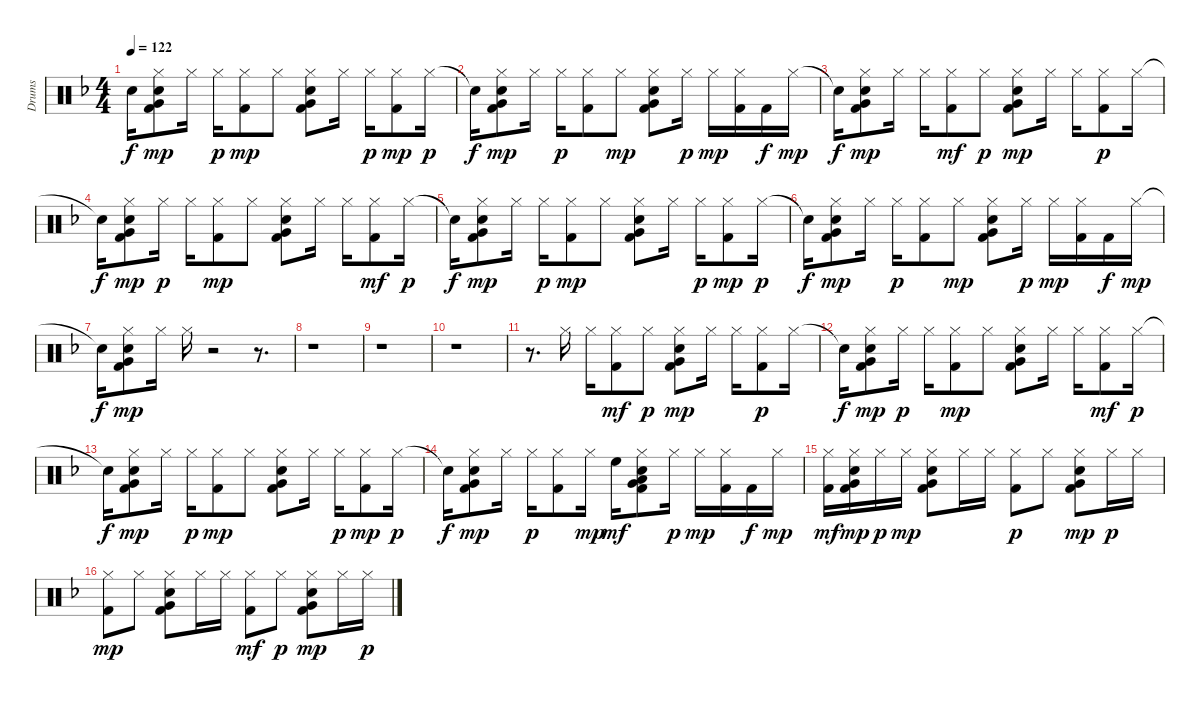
\track ("Drums" "Drums") {instrument percussion}
\staff {score}
\articulation defaults
\ts (4 4)
\tempo 122
\clef neutral
\ks f "Snare (hit)"{t}.16{dy f}
("Kick (hit) 2" "Snare (hit) 2" "Hi-Hat (closed)" "Very Low Tom (hit)").8{dy mp} "Hi-Hat (closed)".16 "Hi-Hat (closed)".16{dy p} ("Kick (hit) 2" "Hi-Hat (closed)").8{dy mp} "Hi-Hat (closed)".8 ("Kick (hit) 2" "Snare (hit) 2" "Hi-Hat (closed)" "Very Low Tom (hit)").8 "Hi-Hat (closed)".16 "Hi-Hat (closed)".16{dy p} ("Kick (hit) 2" "Hi-Hat (closed)").8{dy mp} "Hi-Hat (closed)".16{dy p} |
"Snare (hit)"{t}.16{dy f} ("Kick (hit) 2" "Snare (hit) 2" "Hi-Hat (closed)" "Very Low Tom (hit)").8{dy mp} "Hi-Hat (closed)".16 "Hi-Hat (closed)".16{dy p} ("Kick (hit) 2" "Hi-Hat (closed)").8 "Hi-Hat (closed)".8{dy mp} ("Kick (hit) 2" "Snare (hit) 2" "Hi-Hat (closed)" "Very Low Tom (hit)").8 "Hi-Hat (closed)".16{dy p} "Hi-Hat (closed)".16{dy mp} ("Kick (hit) 2" "Hi-Hat (closed)").16 "Kick (hit) 2".16{dy f} "Hi-Hat (closed)".16{dy mp} |
"Snare (hit)"{t}.16{dy f} ("Kick (hit) 2" "Snare (hit) 2" "Hi-Hat (closed)" "Very Low Tom (hit)").8{dy mp} "Hi-Hat (closed)".16 "Hi-Hat (closed)".16 ("Kick (hit) 2" "Hi-Hat (closed)").8{dy mf} "Hi-Hat (closed)".8{dy p} ("Kick (hit) 2" "Snare (hit) 2" "Hi-Hat (closed)" "Very Low Tom (hit)").8{dy mp} "Hi-Hat (closed)".16 "Hi-Hat (closed)".16 ("Kick (hit) 2" "Hi-Hat (closed)").8{dy p} "Hi-Hat (closed)".16 |
"Snare (hit)"{t}.16{dy f} ("Kick (hit) 2" "Snare (hit) 2" "Hi-Hat (closed)" "Very Low Tom (hit)").8{dy mp} "Hi-Hat (closed)".16{dy p} "Hi-Hat (closed)".16 ("Kick (hit) 2" "Hi-Hat (closed)").8{dy mp} "Hi-Hat (closed)".8 ("Kick (hit) 2" "Snare (hit) 2" "Hi-Hat (closed)" "Very Low Tom (hit)").8 "Hi-Hat (closed)".16 "Hi-Hat (closed)".16 ("Kick (hit) 2" "Hi-Hat (closed)").8{dy mf} "Hi-Hat (closed)".16{dy p} |
"Snare (hit)"{t}.16{dy f} ("Kick (hit) 2" "Snare (hit) 2" "Hi-Hat (closed)" "Very Low Tom (hit)").8{dy mp} "Hi-Hat (closed)".16 "Hi-Hat (closed)".16{dy p} ("Kick (hit) 2" "Hi-Hat (closed)").8{dy mp} "Hi-Hat (closed)".8 ("Kick (hit) 2" "Snare (hit) 2" "Hi-Hat (closed)" "Very Low Tom (hit)").8 "Hi-Hat (closed)".16 "Hi-Hat (closed)".16{dy p} ("Kick (hit) 2" "Hi-Hat (closed)").8{dy mp} "Hi-Hat (closed)".16{dy p} |
"Snare (hit)"{t}.16{dy f} ("Kick (hit) 2" "Snare (hit) 2" "Hi-Hat (closed)" "Very Low Tom (hit)").8{dy mp} "Hi-Hat (closed)".16 "Hi-Hat (closed)".16{dy p} ("Kick (hit) 2" "Hi-Hat (closed)").8 "Hi-Hat (closed)".8{dy mp} ("Kick (hit) 2" "Snare (hit) 2" "Hi-Hat (closed)" "Very Low Tom (hit)").8 "Hi-Hat (closed)".16{dy p} "Hi-Hat (closed)".16{dy mp} ("Kick (hit) 2" "Hi-Hat (closed)").16 "Kick (hit) 2".16{dy f} "Hi-Hat (closed)".16{dy mp} |
"Snare (hit)"{t}.16{dy f} ("Kick (hit) 2" "Snare (hit) 2" "Hi-Hat (closed)" "Very Low Tom (hit)").8{dy mp} "Hi-Hat (closed)".16 "Hi-Hat (closed)".16 r.2 r.8{d} |
r.1 |
r.1 |
r.1 |
r.8{d} "Hi-Hat (closed)".16 "Hi-Hat (closed)".16 ("Kick (hit) 2" "Hi-Hat (closed)").8{dy mf} "Hi-Hat (closed)".8{dy p} ("Kick (hit) 2" "Snare (hit) 2" "Hi-Hat (closed)" "Very Low Tom (hit)").8{dy mp} "Hi-Hat (closed)".16 "Hi-Hat (closed)".16 ("Kick (hit) 2" "Hi-Hat (closed)").8{dy p} "Hi-Hat (closed)".16 |
"Snare (hit)"{t}.16{dy f} ("Kick (hit) 2" "Snare (hit) 2" "Hi-Hat (closed)" "Very Low Tom (hit)").8{dy mp} "Hi-Hat (closed)".16{dy p} "Hi-Hat (closed)".16 ("Kick (hit) 2" "Hi-Hat (closed)").8{dy mp} "Hi-Hat (closed)".8 ("Kick (hit) 2" "Snare (hit) 2" "Hi-Hat (closed)" "Very Low Tom (hit)").8 "Hi-Hat (closed)".16 "Hi-Hat (closed)".16 ("Kick (hit) 2" "Hi-Hat (closed)").8{dy mf} "Hi-Hat (closed)".16{dy p} |
"Snare (hit)"{t}.16{dy f} ("Kick (hit) 2" "Snare (hit) 2" "Hi-Hat (closed)" "Very Low Tom (hit)").8{dy mp} "Hi-Hat (closed)".16 "Hi-Hat (closed)".16{dy p} ("Kick (hit) 2" "Hi-Hat (closed)").8{dy mp} "Hi-Hat (closed)".8 ("Kick (hit) 2" "Snare (hit) 2" "Hi-Hat (closed)" "Very Low Tom (hit)").8 "Hi-Hat (closed)".16 "Hi-Hat (closed)".16{dy p} ("Kick (hit) 2" "Hi-Hat (closed)").8{dy mp} "Hi-Hat (closed)".16{dy p} |
"Snare (hit)"{t}.16{dy f} ("Kick (hit) 2" "Snare (hit) 2" "Hi-Hat (closed)" "Very Low Tom (hit)").8{dy mp} "Hi-Hat (closed)".16 "Hi-Hat (closed)".16{dy p} ("Kick (hit) 2" "Hi-Hat (closed)").8 "Hi-Hat (closed)".16{dy mp} "High Floor Tom (hit)".16{dy mf} ("Kick (hit) 2" "Snare (hit) 2" "Hi-Hat (closed)" "Very Low Tom (hit)" "Low Tom (hit)").8 "Hi-Hat (closed)".16{dy p} "Hi-Hat (closed)".16{dy mp} ("Kick (hit) 2" "Hi-Hat (closed)").16 "Kick (hit) 2".16{dy f} "Hi-Hat (closed)".16{dy mp} |
("Kick (hit) 2" "Hi-Hat (closed)").16{dy mf} ("Kick (hit) 2" "Snare (hit) 2" "Hi-Hat (closed)" "Very Low Tom (hit)").16{dy mp} "Hi-Hat (closed)".16{dy p} "Hi-Hat (closed)".16{dy mp} ("Kick (hit) 2" "Snare (hit) 2" "Hi-Hat (closed)" "Very Low Tom (hit)").8 "Hi-Hat (closed)".16 "Hi-Hat (closed)".16 ("Kick (hit) 2" "Hi-Hat (closed)").8{dy p} "Hi-Hat (closed)".8 ("Kick (hit) 2" "Snare (hit) 2" "Hi-Hat (closed)" "Very Low Tom (hit)").8{dy mp} "Hi-Hat (closed)".16{dy p} "Hi-Hat (closed)".16 |
("Kick (hit) 2" "Hi-Hat (closed)").8{dy mp} "Hi-Hat (closed)".8 ("Kick (hit) 2" "Snare (hit) 2" "Hi-Hat (closed)" "Very Low Tom (hit)").8 "Hi-Hat (closed)".16 "Hi-Hat (closed)".16 ("Kick (hit) 2" "Hi-Hat (closed)").8{dy mf} "Hi-Hat (closed)".8{dy p} ("Kick (hit) 2" "Snare (hit) 2" "Hi-Hat (closed)" "Very Low Tom (hit)").8{dy mp} "Hi-Hat (closed)".16 "Hi-Hat (closed)".16{dy p}
